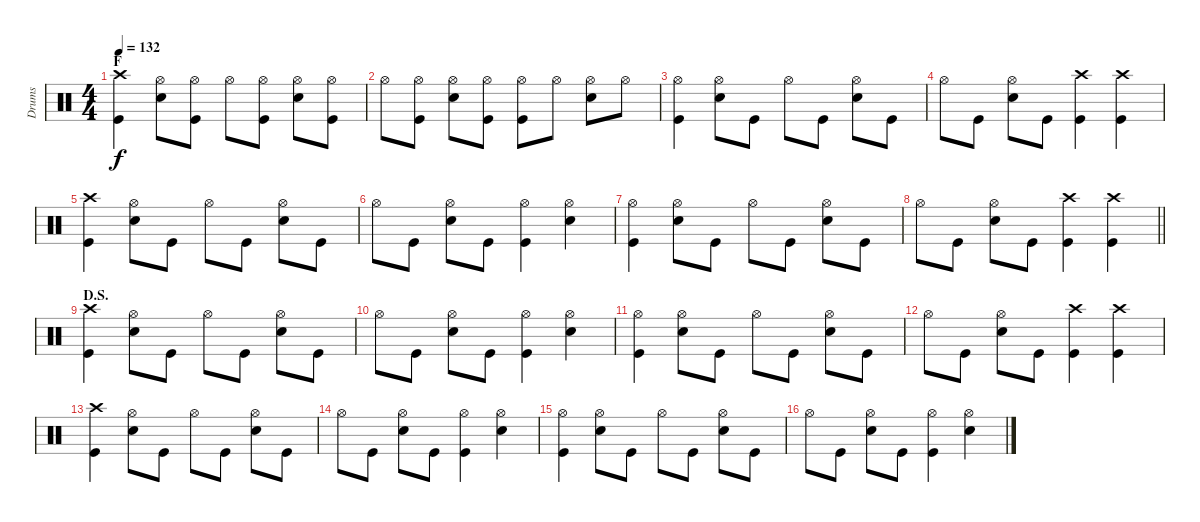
\track ("Drums" "Drums") {instrument percussion}
\staff {score}
\articulation defaults
\ts (4 4)
\section ("" "F")
\tempo 132
\clef neutral
\ks c
("Crash high (hit)" "Kick (hit)").4{dy f} ("Hi-Hat (open)" "Electric Snare (hit)").8 ("Hi-Hat (open)" "Kick (hit)").8 "Hi-Hat (open)".8 ("Hi-Hat (open)" "Kick (hit)").8 ("Hi-Hat (open)" "Electric Snare (hit)").8 ("Hi-Hat (open)" "Kick (hit)").8 |
"Hi-Hat (open)".8 ("Hi-Hat (open)" "Kick (hit)").8 ("Hi-Hat (open)" "Electric Snare (hit)").8 ("Hi-Hat (open)" "Kick (hit)").8 ("Hi-Hat (open)" "Kick (hit)").8 "Hi-Hat (open)".8 ("Hi-Hat (open)" "Electric Snare (hit)").8 "Hi-Hat (open)".8 |
("Hi-Hat (open)" "Kick (hit)").4 ("Hi-Hat (open)" "Electric Snare (hit)").8 "Kick (hit)".8 "Hi-Hat (open)".8 "Kick (hit)".8 ("Hi-Hat (open)" "Electric Snare (hit)").8 "Kick (hit)".8 |
"Hi-Hat (open)".8 "Kick (hit)".8 ("Hi-Hat (open)" "Electric Snare (hit)").8 "Kick (hit)".8 ("Crash high (hit)" "Kick (hit)").4 ("Crash high (hit)" "Kick (hit)").4 |
("Crash high (hit)" "Kick (hit)").4 ("Hi-Hat (open)" "Electric Snare (hit)").8 "Kick (hit)".8 "Hi-Hat (open)".8 "Kick (hit)".8 ("Hi-Hat (open)" "Electric Snare (hit)").8 "Kick (hit)".8 |
"Hi-Hat (open)".8 "Kick (hit)".8 ("Hi-Hat (open)" "Electric Snare (hit)").8 "Kick (hit)".8 ("Hi-Hat (open)" "Kick (hit)").4 ("Hi-Hat (open)" "Electric Snare (hit)").4 |
("Hi-Hat (open)" "Kick (hit)").4 ("Hi-Hat (open)" "Electric Snare (hit)").8 "Kick (hit)".8 "Hi-Hat (open)".8 "Kick (hit)".8 ("Hi-Hat (open)" "Electric Snare (hit)").8 "Kick (hit)".8 |
\barLineRight lightlight "Hi-Hat (open)".8 "Kick (hit)".8
("Hi-Hat (open)" "Electric Snare (hit)").8 "Kick (hit)".8 ("Crash high (hit)" "Kick (hit)").4 ("Crash high (hit)" "Kick (hit)").4 |
\section ("" "D.S.")
("Crash high (hit)" "Kick (hit)").4 ("Hi-Hat (open)" "Electric Snare (hit)").8 "Kick (hit)".8 "Hi-Hat (open)".8 "Kick (hit)".8 ("Hi-Hat (open)" "Electric Snare (hit)").8 "Kick (hit)".8 |
"Hi-Hat (open)".8 "Kick (hit)".8 ("Hi-Hat (open)" "Electric Snare (hit)").8 "Kick (hit)".8 ("Hi-Hat (open)" "Kick (hit)").4 ("Hi-Hat (open)" "Electric Snare (hit)").4 |
("Hi-Hat (open)" "Kick (hit)").4 ("Hi-Hat (open)" "Electric Snare (hit)").8 "Kick (hit)".8 "Hi-Hat (open)".8 "Kick (hit)".8 ("Hi-Hat (open)" "Electric Snare (hit)").8 "Kick (hit)".8 |
"Hi-Hat (open)".8 "Kick (hit)".8 ("Hi-Hat (open)" "Electric Snare (hit)").8 "Kick (hit)".8 ("Crash high (hit)" "Kick (hit)").4 ("Crash high (hit)" "Kick (hit)").4 |
("Crash high (hit)" "Kick (hit)").4 ("Hi-Hat (open)" "Electric Snare (hit)").8 "Kick (hit)".8 "Hi-Hat (open)".8 "Kick (hit)".8 ("Hi-Hat (open)" "Electric Snare (hit)").8 "Kick (hit)".8 |
"Hi-Hat (open)".8 "Kick (hit)".8 ("Hi-Hat (open)" "Electric Snare (hit)").8 "Kick (hit)".8 ("Hi-Hat (open)" "Kick (hit)").4 ("Hi-Hat (open)" "Electric Snare (hit)").4 |
("Hi-Hat (open)" "Kick (hit)").4 ("Hi-Hat (open)" "Electric Snare (hit)").8 "Kick (hit)".8 "Hi-Hat (open)".8 "Kick (hit)".8 ("Hi-Hat (open)" "Electric Snare (hit)").8 "Kick (hit)".8 |
"Hi-Hat (open)".8 "Kick (hit)".8 ("Hi-Hat (open)" "Electric Snare (hit)").8 "Kick (hit)".8 ("Hi-Hat (open)" "Kick (hit)").4 ("Hi-Hat (open)" "Electric Snare (hit)").4
